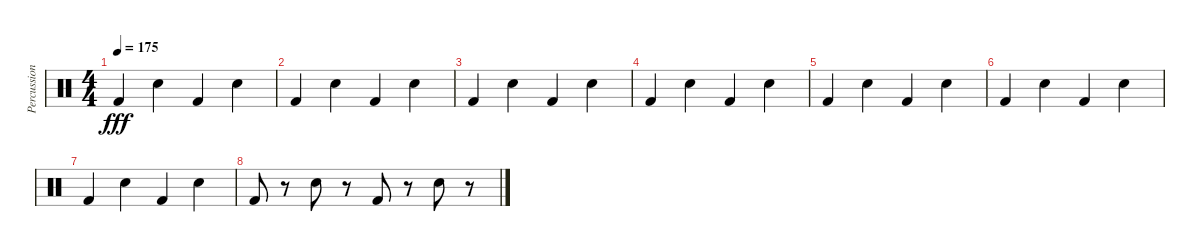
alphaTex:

\track ("Percussion" "Percussion") {instrument percussion}
\staff {score}
\articulation defaults
\ts (4 4)
\tempo 175
\clef neutral
\ks c "Kick (hit) 2".4{dy fff} "Snare (hit) 2".4 "Kick (hit) 2".4 "Snare (hit) 2".4
|
"Kick (hit) 2".4 "Snare (hit) 2".4 "Kick (hit) 2".4 "Snare (hit) 2".4 |
"Kick (hit) 2".4 "Snare (hit) 2".4 "Kick (hit) 2".4 "Snare (hit) 2".4 |
"Kick (hit) 2".4 "Snare (hit) 2".4 "Kick (hit) 2".4 "Snare (hit) 2".4 |
"Kick (hit) 2".4 "Snare (hit) 2".4 "Kick (hit) 2".4 "Snare (hit) 2".4 |
"Kick (hit) 2".4 "Snare (hit) 2".4 "Kick (hit) 2".4 "Snare (hit) 2".4 |
"Kick (hit) 2".4 "Snare (hit) 2".4 "Kick (hit) 2".4 "Snare (hit) 2".4 |
"Kick (hit) 2".8 r.8 "Snare (hit) 2".8 r.8 "Kick (hit) 2".8 r.8 "Snare (hit) 2".8 r.8
